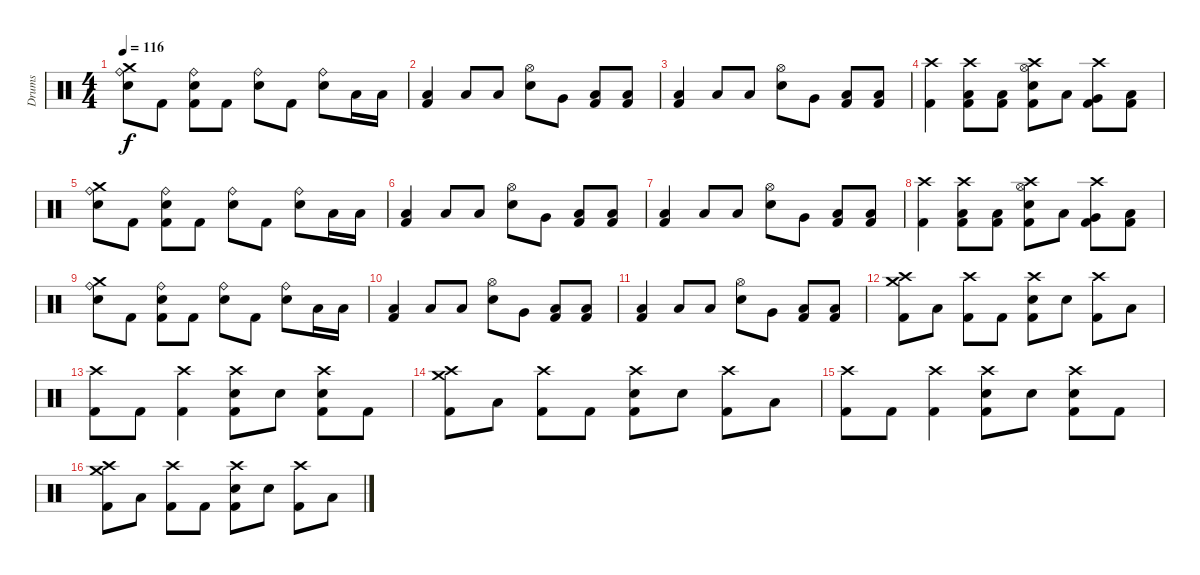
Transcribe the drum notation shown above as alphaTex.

\track ("Drums" "Drums") {instrument percussion}
\staff {score}
\articulation defaults
\ts (4 4)
\tempo 116
\clef neutral
\ks c
("Crash medium (hit)" "Ride (bell)" "Snare (hit) 2").8{dy f} "Kick (hit) 2".8 ("Ride (bell)" "Snare (hit) 2" "Kick (hit) 2").8 "Kick (hit) 2".8 ("Ride (bell)" "Snare (hit) 2").8 "Kick (hit) 2".8 ("Ride (bell)" "Snare (hit) 2").8 "Low Floor Tom (hit)".16 "Low Floor Tom (hit)".16 |
("Low Floor Tom (hit)" "Kick (hit) 2").4 "Low Floor Tom (hit)".8 "Low Floor Tom (hit)".8 ("Hi-Hat (open)" "Electric Snare (hit)").8 "Very Low Tom (hit)".8 ("Low Floor Tom (hit)" "Kick (hit) 2").8 ("Low Floor Tom (hit)" "Kick (hit) 2").8 |
("Low Floor Tom (hit)" "Kick (hit) 2").4 "Low Floor Tom (hit)".8 "Low Floor Tom (hit)".8 ("Hi-Hat (open)" "Electric Snare (hit)").8 "Very Low Tom (hit)".8 ("Low Floor Tom (hit)" "Kick (hit) 2").8 ("Low Floor Tom (hit)" "Kick (hit) 2").8 |
("Crash high (hit)" "Kick (hit) 2").4 ("Crash high (hit)" "Low Floor Tom (hit)" "Kick (hit) 2").8 ("Low Floor Tom (hit)" "Kick (hit) 2").8 ("Crash high (hit)" "Hi-Hat (open)" "Electric Snare (hit)" "Kick (hit) 2").8 "Low Floor Tom (hit)".8 ("Crash high (hit)" "Very Low Tom (hit)" "Kick (hit) 2").8 ("Low Floor Tom (hit)" "Kick (hit) 2").8 |
("Crash medium (hit)" "Ride (bell)" "Snare (hit) 2").8 "Kick (hit) 2".8 ("Ride (bell)" "Snare (hit) 2" "Kick (hit) 2").8 "Kick (hit) 2".8 ("Ride (bell)" "Snare (hit) 2").8 "Kick (hit) 2".8 ("Ride (bell)" "Snare (hit) 2").8 "Low Floor Tom (hit)".16 "Low Floor Tom (hit)".16 |
("Low Floor Tom (hit)" "Kick (hit) 2").4 "Low Floor Tom (hit)".8 "Low Floor Tom (hit)".8 ("Hi-Hat (open)" "Electric Snare (hit)").8 "Very Low Tom (hit)".8 ("Low Floor Tom (hit)" "Kick (hit) 2").8 ("Low Floor Tom (hit)" "Kick (hit) 2").8 |
("Low Floor Tom (hit)" "Kick (hit) 2").4 "Low Floor Tom (hit)".8 "Low Floor Tom (hit)".8 ("Hi-Hat (open)" "Electric Snare (hit)").8 "Very Low Tom (hit)".8 ("Low Floor Tom (hit)" "Kick (hit) 2").8 ("Low Floor Tom (hit)" "Kick (hit) 2").8 |
("Crash high (hit)" "Kick (hit) 2").4 ("Crash high (hit)" "Low Floor Tom (hit)" "Kick (hit) 2").8 ("Low Floor Tom (hit)" "Kick (hit) 2").8 ("Crash high (hit)" "Hi-Hat (open)" "Electric Snare (hit)" "Kick (hit) 2").8 "Low Floor Tom (hit)".8 ("Crash high (hit)" "Very Low Tom (hit)" "Kick (hit) 2").8 ("Low Floor Tom (hit)" "Kick (hit) 2").8 |
("Crash medium (hit)" "Ride (bell)" "Snare (hit) 2").8 "Kick (hit) 2".8 ("Ride (bell)" "Snare (hit) 2" "Kick (hit) 2").8 "Kick (hit) 2".8 ("Ride (bell)" "Snare (hit) 2").8 "Kick (hit) 2".8 ("Ride (bell)" "Snare (hit) 2").8 "Low Floor Tom (hit)".16 "Low Floor Tom (hit)".16 |
("Low Floor Tom (hit)" "Kick (hit) 2").4 "Low Floor Tom (hit)".8 "Low Floor Tom (hit)".8 ("Hi-Hat (open)" "Electric Snare (hit)").8 "Very Low Tom (hit)".8 ("Low Floor Tom (hit)" "Kick (hit) 2").8 ("Low Floor Tom (hit)" "Kick (hit) 2").8 |
("Low Floor Tom (hit)" "Kick (hit) 2").4 "Low Floor Tom (hit)".8 "Low Floor Tom (hit)".8 ("Hi-Hat (open)" "Electric Snare (hit)").8 "Very Low Tom (hit)".8 ("Low Floor Tom (hit)" "Kick (hit) 2").8 ("Low Floor Tom (hit)" "Kick (hit) 2").8 |
("Crash medium (hit)" "Crash high (hit)" "Kick (hit) 2").8 "Low Floor Tom (hit)".8 ("Crash high (hit)" "Kick (hit) 2").8 "Kick (hit) 2".8 ("Crash high (hit)" "Electric Snare (hit)" "Kick (hit) 2").8 "Electric Snare (hit)".8 ("Crash high (hit)" "Kick (hit) 2").8 "Low Floor Tom (hit)".8 |
("Crash high (hit)" "Kick (hit) 2").8 "Kick (hit) 2".8 ("Crash high (hit)" "Kick (hit) 2").4 ("Crash high (hit)" "Electric Snare (hit)" "Kick (hit) 2").8 "Electric Snare (hit)".8 ("Crash high (hit)" "Electric Snare (hit)" "Kick (hit) 2").8 "Kick (hit) 2".8 |
("Crash medium (hit)" "Crash high (hit)" "Kick (hit) 2").8 "Low Floor Tom (hit)".8 ("Crash high (hit)" "Kick (hit) 2").8 "Kick (hit) 2".8 ("Crash high (hit)" "Electric Snare (hit)" "Kick (hit) 2").8 "Electric Snare (hit)".8 ("Crash high (hit)" "Kick (hit) 2").8 "Low Floor Tom (hit)".8 |
("Crash high (hit)" "Kick (hit) 2").8 "Kick (hit) 2".8 ("Crash high (hit)" "Kick (hit) 2").4 ("Crash high (hit)" "Electric Snare (hit)" "Kick (hit) 2").8 "Electric Snare (hit)".8 ("Crash high (hit)" "Electric Snare (hit)" "Kick (hit) 2").8 "Kick (hit) 2".8 |
("Crash medium (hit)" "Crash high (hit)" "Kick (hit) 2").8 "Low Floor Tom (hit)".8 ("Crash high (hit)" "Kick (hit) 2").8 "Kick (hit) 2".8 ("Crash high (hit)" "Electric Snare (hit)" "Kick (hit) 2").8 "Electric Snare (hit)".8 ("Crash high (hit)" "Kick (hit) 2").8 "Low Floor Tom (hit)".8
